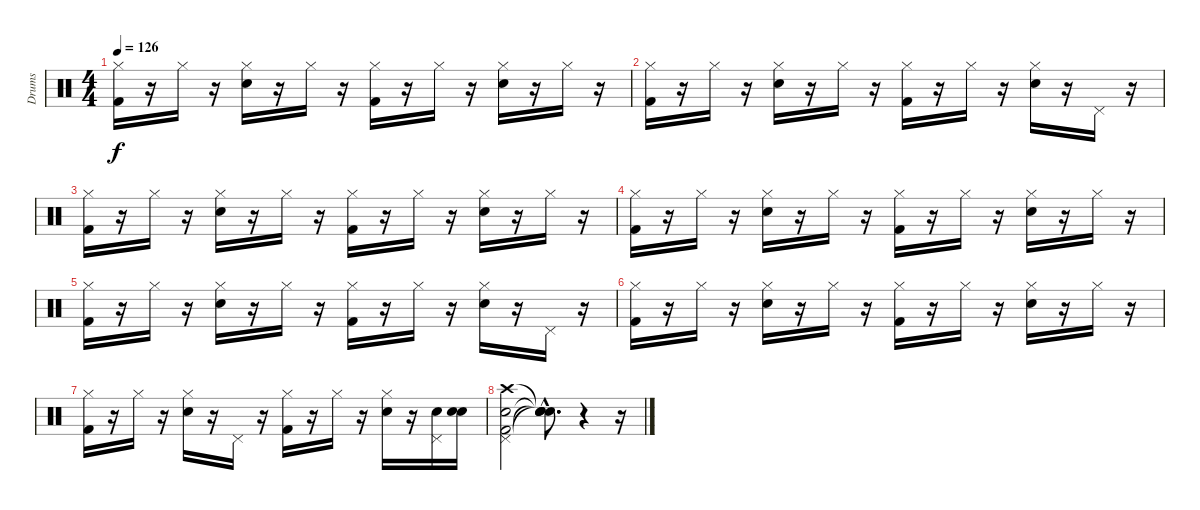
\track ("Drums   " "Drums   ") {instrument percussion}
\staff {score}
\articulation defaults
\ts (4 4)
\tempo 126
\clef neutral
\ks c
("Kick (hit) 2" "Hi-Hat (closed)").16{dy f} r.16 "Hi-Hat (closed)".16 r.16 ("Snare (hit) 2" "Hi-Hat (closed)").16 r.16 "Hi-Hat (closed)".16 r.16 ("Kick (hit) 2" "Hi-Hat (closed)").16 r.16 "Hi-Hat (closed)".16 r.16 ("Snare (hit) 2" "Hi-Hat (closed)").16 r.16 "Hi-Hat (closed)".16 r.16 |
("Kick (hit) 2" "Hi-Hat (closed)").16 r.16 "Hi-Hat (closed)".16 r.16 ("Snare (hit) 2" "Hi-Hat (closed)").16 r.16 "Hi-Hat (closed)".16 r.16 ("Kick (hit) 2" "Hi-Hat (closed)").16 r.16 "Hi-Hat (closed)".16 r.16 ("Snare (hit) 2" "Hi-Hat (closed)").16 r.16 "Pedal Hi-Hat (hit)".16 r.16 |
("Kick (hit) 2" "Hi-Hat (closed)").16 r.16 "Hi-Hat (closed)".16 r.16 ("Snare (hit) 2" "Hi-Hat (closed)").16 r.16 "Hi-Hat (closed)".16 r.16 ("Kick (hit) 2" "Hi-Hat (closed)").16 r.16 "Hi-Hat (closed)".16 r.16 ("Snare (hit) 2" "Hi-Hat (closed)").16 r.16 "Hi-Hat (closed)".16 r.16 |
("Kick (hit) 2" "Hi-Hat (closed)").16 r.16 "Hi-Hat (closed)".16 r.16 ("Snare (hit) 2" "Hi-Hat (closed)").16 r.16 "Hi-Hat (closed)".16 r.16 ("Kick (hit) 2" "Hi-Hat (closed)").16 r.16 "Hi-Hat (closed)".16 r.16 ("Snare (hit) 2" "Hi-Hat (closed)").16 r.16 "Hi-Hat (closed)".16 r.16 |
("Kick (hit) 2" "Hi-Hat (closed)").16 r.16 "Hi-Hat (closed)".16 r.16 ("Snare (hit) 2" "Hi-Hat (closed)").16 r.16 "Hi-Hat (closed)".16 r.16 ("Kick (hit) 2" "Hi-Hat (closed)").16 r.16 "Hi-Hat (closed)".16 r.16 ("Snare (hit) 2" "Hi-Hat (closed)").16 r.16 "Pedal Hi-Hat (hit)".16 r.16 |
("Kick (hit) 2" "Hi-Hat (closed)").16 r.16 "Hi-Hat (closed)".16 r.16 ("Snare (hit) 2" "Hi-Hat (closed)").16 r.16 "Hi-Hat (closed)".16 r.16 ("Kick (hit) 2" "Hi-Hat (closed)").16 r.16 "Hi-Hat (closed)".16 r.16 ("Snare (hit) 2" "Hi-Hat (closed)").16 r.16 "Hi-Hat (closed)".16 r.16 |
("Kick (hit) 2" "Hi-Hat (closed)").16 r.16 "Hi-Hat (closed)".16 r.16 ("Snare (hit) 2" "Hi-Hat (closed)").16 r.16 "Pedal Hi-Hat (hit)".16 r.16 ("Kick (hit) 2" "Hi-Hat (closed)").16 r.16 "Hi-Hat (closed)".16 r.16 ("Snare (hit) 2" "Hi-Hat (closed)").16 r.16 ("Snare (hit) 2" "Pedal Hi-Hat (hit)").16 ("Snare (hit)" "Snare (hit) 2").16 |
("Snare (hit)" "Kick (hit) 2" "Pedal Hi-Hat (hit)" "Crash high (hit)").2 ("Snare (hit)"{hac t} "Snare (hit)"{hac t} "Snare (hit)"{hac t} "Snare (hit)"{hac t}).8{d} r.4 r.16
